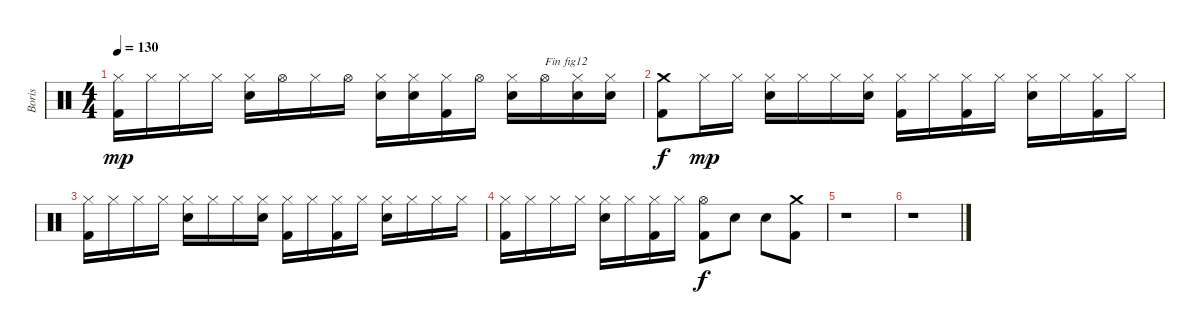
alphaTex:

\track ("Boris" "Boris") {instrument percussion}
\staff {score}
\articulation defaults
\ts (4 4)
\tempo 130
\clef neutral
\ks c
("Kick (hit) 2" "Hi-Hat (closed)").16{dy mp} "Hi-Hat (closed)".16 "Hi-Hat (closed)".16 "Hi-Hat (closed)".16 ("Electric Snare (hit)" "Hi-Hat (closed)").16 "Hi-Hat (open)".16 "Hi-Hat (closed)".16 "Hi-Hat (open)".16 ("Electric Snare (hit)" "Hi-Hat (closed)").16 ("Electric Snare (hit)" "Hi-Hat (closed)").16 ("Kick (hit) 2" "Hi-Hat (closed)").16 "Hi-Hat (open)".16 ("Electric Snare (hit)" "Hi-Hat (closed)").16 "Hi-Hat (open)".16{txt "Fin fig12"} ("Electric Snare (hit)" "Hi-Hat (closed)").16 ("Electric Snare (hit)" "Hi-Hat (closed)").16 |
("Kick (hit) 2" "Crash medium (hit)").8{dy f} "Hi-Hat (closed)".16{dy mp} "Hi-Hat (closed)".16 ("Electric Snare (hit)" "Hi-Hat (closed)").16 "Hi-Hat (closed)".16 "Hi-Hat (closed)".16 ("Electric Snare (hit)" "Hi-Hat (closed)").16 ("Kick (hit) 2" "Hi-Hat (closed)").16 "Hi-Hat (closed)".16 ("Kick (hit) 2" "Hi-Hat (closed)").16 "Hi-Hat (closed)".16 ("Electric Snare (hit)" "Hi-Hat (closed)").16 "Hi-Hat (closed)".16 ("Kick (hit) 2" "Hi-Hat (closed)").16 "Hi-Hat (closed)".16 |
("Kick (hit) 2" "Hi-Hat (closed)").16 "Hi-Hat (closed)".16 "Hi-Hat (closed)".16 "Hi-Hat (closed)".16 ("Electric Snare (hit)" "Hi-Hat (closed)").16 "Hi-Hat (closed)".16 "Hi-Hat (closed)".16 ("Electric Snare (hit)" "Hi-Hat (closed)").16 ("Kick (hit) 2" "Hi-Hat (closed)").16 "Hi-Hat (closed)".16 ("Kick (hit) 2" "Hi-Hat (closed)").16 "Hi-Hat (closed)".16 ("Electric Snare (hit)" "Hi-Hat (closed)").16 "Hi-Hat (closed)".16 "Hi-Hat (closed)".16 "Hi-Hat (closed)".16 |
("Kick (hit) 2" "Hi-Hat (closed)").16 "Hi-Hat (closed)".16 "Hi-Hat (closed)".16 "Hi-Hat (closed)".16 ("Electric Snare (hit)" "Hi-Hat (closed)").16 "Hi-Hat (closed)".16 ("Kick (hit) 2" "Hi-Hat (closed)").16 "Hi-Hat (closed)".16 ("Kick (hit) 2" "Hi-Hat (open)").8{dy f} "Electric Snare (hit)".8 "Electric Snare (hit)".8 ("Kick (hit) 2" "Crash medium (hit)").8 |
r.1 |
r.1
